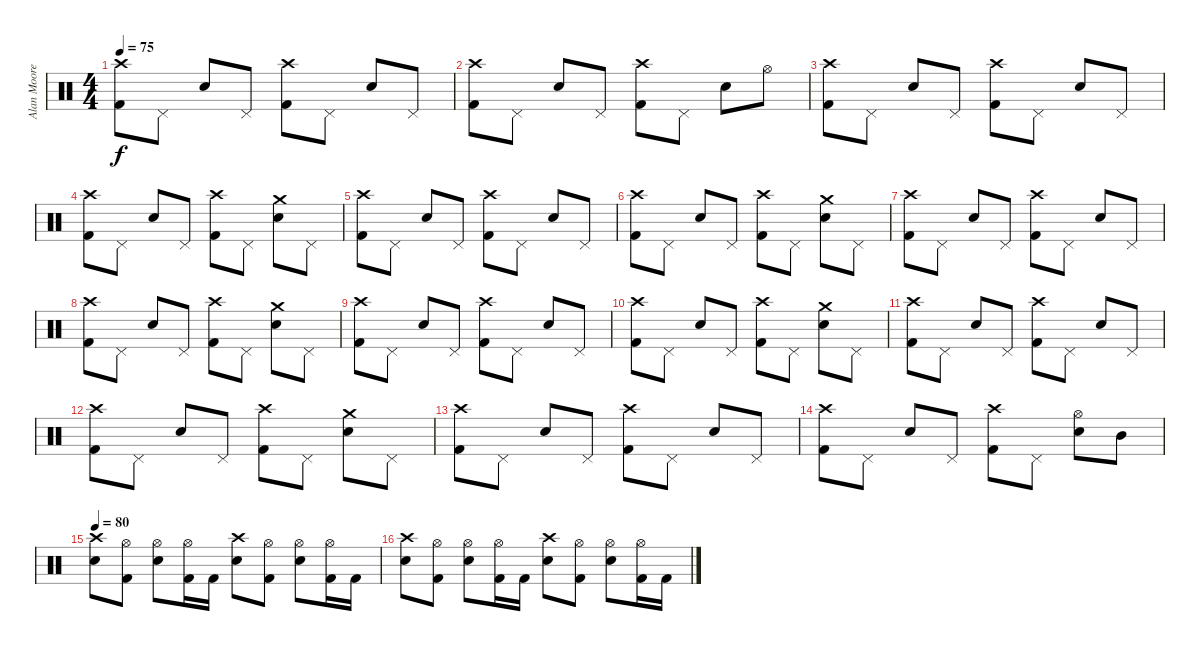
\track ("Alan Moore" "Alan Moore") {instrument percussion}
\staff {score}
\articulation defaults
\ts (4 4)
\tempo 75
\clef neutral
\ks c
("Crash high (hit)" "Kick (hit) 2").8{dy f} "Pedal Hi-Hat (hit)".8 "Snare (hit) 2".8 "Pedal Hi-Hat (hit)".8 ("Crash high (hit)" "Kick (hit) 2").8 "Pedal Hi-Hat (hit)".8 "Snare (hit) 2".8 "Pedal Hi-Hat (hit)".8 |
("Crash high (hit)" "Kick (hit) 2").8 "Pedal Hi-Hat (hit)".8 "Snare (hit) 2".8 "Pedal Hi-Hat (hit)".8 ("Crash high (hit)" "Kick (hit) 2").8 "Pedal Hi-Hat (hit)".8 "Snare (hit) 2".8 "Hi-Hat (open)".8 |
("Crash high (hit)" "Kick (hit) 2").8 "Pedal Hi-Hat (hit)".8 "Snare (hit) 2".8 "Pedal Hi-Hat (hit)".8 ("Crash high (hit)" "Kick (hit) 2").8 "Pedal Hi-Hat (hit)".8 "Snare (hit) 2".8 "Pedal Hi-Hat (hit)".8 |
("Crash high (hit)" "Kick (hit) 2").8 "Pedal Hi-Hat (hit)".8 "Snare (hit) 2".8 "Pedal Hi-Hat (hit)".8 ("Crash high (hit)" "Kick (hit) 2").8 "Pedal Hi-Hat (hit)".8 ("Snare (hit) 2" "Crash medium (hit)").8 "Pedal Hi-Hat (hit)".8 |
("Crash high (hit)" "Kick (hit) 2").8 "Pedal Hi-Hat (hit)".8 "Snare (hit) 2".8 "Pedal Hi-Hat (hit)".8 ("Crash high (hit)" "Kick (hit) 2").8 "Pedal Hi-Hat (hit)".8 "Snare (hit) 2".8 "Pedal Hi-Hat (hit)".8 |
("Crash high (hit)" "Kick (hit) 2").8 "Pedal Hi-Hat (hit)".8 "Snare (hit) 2".8 "Pedal Hi-Hat (hit)".8 ("Crash high (hit)" "Kick (hit) 2").8 "Pedal Hi-Hat (hit)".8 ("Snare (hit) 2" "Crash medium (hit)").8 "Pedal Hi-Hat (hit)".8 |
("Crash high (hit)" "Kick (hit) 2").8 "Pedal Hi-Hat (hit)".8 "Snare (hit) 2".8 "Pedal Hi-Hat (hit)".8 ("Crash high (hit)" "Kick (hit) 2").8 "Pedal Hi-Hat (hit)".8 "Snare (hit) 2".8 "Pedal Hi-Hat (hit)".8 |
("Crash high (hit)" "Kick (hit) 2").8 "Pedal Hi-Hat (hit)".8 "Snare (hit) 2".8 "Pedal Hi-Hat (hit)".8 ("Crash high (hit)" "Kick (hit) 2").8 "Pedal Hi-Hat (hit)".8 ("Snare (hit) 2" "Crash medium (hit)").8 "Pedal Hi-Hat (hit)".8 |
("Crash high (hit)" "Kick (hit) 2").8 "Pedal Hi-Hat (hit)".8 "Snare (hit) 2".8 "Pedal Hi-Hat (hit)".8 ("Crash high (hit)" "Kick (hit) 2").8 "Pedal Hi-Hat (hit)".8 "Snare (hit) 2".8 "Pedal Hi-Hat (hit)".8 |
("Crash high (hit)" "Kick (hit) 2").8 "Pedal Hi-Hat (hit)".8 "Snare (hit) 2".8 "Pedal Hi-Hat (hit)".8 ("Crash high (hit)" "Kick (hit) 2").8 "Pedal Hi-Hat (hit)".8 ("Snare (hit) 2" "Crash medium (hit)").8 "Pedal Hi-Hat (hit)".8 |
("Crash high (hit)" "Kick (hit) 2").8 "Pedal Hi-Hat (hit)".8 "Snare (hit) 2".8 "Pedal Hi-Hat (hit)".8 ("Crash high (hit)" "Kick (hit) 2").8 "Pedal Hi-Hat (hit)".8 "Snare (hit) 2".8 "Pedal Hi-Hat (hit)".8 |
("Crash high (hit)" "Kick (hit) 2").8 "Pedal Hi-Hat (hit)".8 "Snare (hit) 2".8 "Pedal Hi-Hat (hit)".8 ("Crash high (hit)" "Kick (hit) 2").8 "Pedal Hi-Hat (hit)".8 ("Snare (hit) 2" "Crash medium (hit)").8 "Pedal Hi-Hat (hit)".8 |
("Crash high (hit)" "Kick (hit) 2").8 "Pedal Hi-Hat (hit)".8 "Snare (hit) 2".8 "Pedal Hi-Hat (hit)".8 ("Crash high (hit)" "Kick (hit) 2").8 "Pedal Hi-Hat (hit)".8 "Snare (hit) 2".8 "Pedal Hi-Hat (hit)".8 |
("Crash high (hit)" "Kick (hit) 2").8 "Pedal Hi-Hat (hit)".8 "Snare (hit) 2".8 "Pedal Hi-Hat (hit)".8 ("Crash high (hit)" "Kick (hit) 2").8 "Pedal Hi-Hat (hit)".8 ("Snare (hit) 2" "Hi-Hat (open)").8 "Mid Tom (hit)".8 |
\tempo 80
("Snare (hit) 2" "Crash high (hit)").8 ("Hi-Hat (open)" "Kick (hit) 2").8 ("Snare (hit) 2" "Hi-Hat (open)").8 ("Hi-Hat (open)" "Kick (hit) 2").16 "Kick (hit) 2".16 ("Snare (hit) 2" "Crash high (hit)").8 ("Hi-Hat (open)" "Kick (hit) 2").8 ("Snare (hit) 2" "Hi-Hat (open)").8 ("Hi-Hat (open)" "Kick (hit) 2").16 "Kick (hit) 2".16 |
("Snare (hit) 2" "Crash high (hit)").8 ("Hi-Hat (open)" "Kick (hit) 2").8 ("Snare (hit) 2" "Hi-Hat (open)").8 ("Hi-Hat (open)" "Kick (hit) 2").16 "Kick (hit) 2".16 ("Snare (hit) 2" "Crash high (hit)").8 ("Hi-Hat (open)" "Kick (hit) 2").8 ("Snare (hit) 2" "Hi-Hat (open)").8 ("Hi-Hat (open)" "Kick (hit) 2").16 "Kick (hit) 2".16
